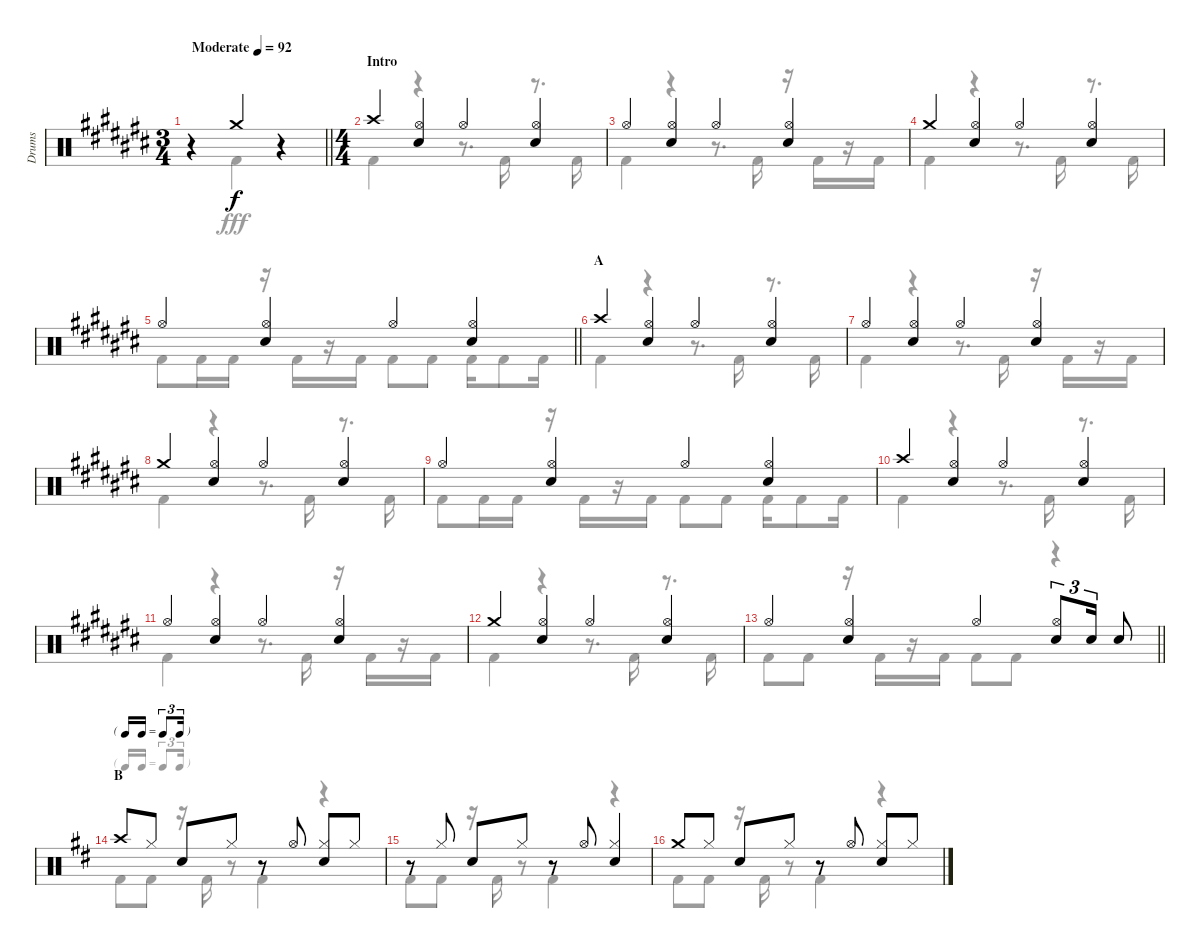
\track ("Drums" "Drums") {instrument percussion}
\staff {score}
\articulation defaults
\voice
\ts (3 4)
\tempo (92 "Moderate")
\clef neutral
\barLineRight lightlight
\ks c#
r.4{dy f} "Crash medium (hit)".4 r.4 |
\ts (4 4)
\section ("" "Intro")
"Crash high (hit)".4 ("Hi-Hat (open)" "Snare (hit) 2").4 "Hi-Hat (open)".4 ("Hi-Hat (open)" "Snare (hit) 2").4 |
"Hi-Hat (open)".4 ("Hi-Hat (open)" "Snare (hit) 2").4 "Hi-Hat (open)".4 ("Hi-Hat (open)" "Snare (hit) 2").4 |
"Crash medium (hit)".4 ("Hi-Hat (open)" "Snare (hit) 2").4 "Hi-Hat (open)".4 ("Hi-Hat (open)" "Snare (hit) 2").4 |
\barLineRight lightlight "Hi-Hat (open)".4
("Hi-Hat (open)" "Snare (hit) 2").4 "Hi-Hat (open)".4 ("Hi-Hat (open)" "Snare (hit) 2").4 |
\section ("" "A")
"Crash high (hit)".4 ("Hi-Hat (open)" "Snare (hit) 2").4 "Hi-Hat (open)".4 ("Hi-Hat (open)" "Snare (hit) 2").4 |
"Hi-Hat (open)".4 ("Hi-Hat (open)" "Snare (hit) 2").4 "Hi-Hat (open)".4 ("Hi-Hat (open)" "Snare (hit) 2").4 |
"Crash medium (hit)".4 ("Hi-Hat (open)" "Snare (hit) 2").4 "Hi-Hat (open)".4 ("Hi-Hat (open)" "Snare (hit) 2").4 |
"Hi-Hat (open)".4 ("Hi-Hat (open)" "Snare (hit) 2").4 "Hi-Hat (open)".4 ("Hi-Hat (open)" "Snare (hit) 2").4 |
"Crash high (hit)".4 ("Hi-Hat (open)" "Snare (hit) 2").4 "Hi-Hat (open)".4 ("Hi-Hat (open)" "Snare (hit) 2").4 |
"Hi-Hat (open)".4 ("Hi-Hat (open)" "Snare (hit) 2").4 "Hi-Hat (open)".4 ("Hi-Hat (open)" "Snare (hit) 2").4 |
"Crash medium (hit)".4 ("Hi-Hat (open)" "Snare (hit) 2").4 "Hi-Hat (open)".4 ("Hi-Hat (open)" "Snare (hit) 2").4 |
\barLineRight lightlight "Hi-Hat (open)".4
("Hi-Hat (open)" "Snare (hit) 2").4 "Hi-Hat (open)".4 ("Hi-Hat (open)" "Snare (hit) 2").8{tu (3 2)} "Snare (hit) 2".16{tu (3 2)} "Snare (hit) 2".8 |
\tf triplet16th
\section ("" "B")
\ks d "Crash high (hit)".8 "Hi-Hat (closed)".8 "Snare (hit) 2".8 "Hi-Hat (closed)".8
r.8 "Hi-Hat (open)".8 ("Hi-Hat (closed)" "Snare (hit) 2").8 "Hi-Hat (closed)".8 |
r.8 "Hi-Hat (closed)".8 "Snare (hit) 2".8 "Hi-Hat (closed)".8 r.8 "Hi-Hat (open)".8 ("Hi-Hat (closed)" "Snare (hit) 2").4 |
"Crash medium (hit)".8 "Hi-Hat (closed)".8 "Snare (hit) 2".8 "Hi-Hat (closed)".8 r.8 "Hi-Hat (open)".8 ("Hi-Hat (closed)" "Snare (hit) 2").8 "Hi-Hat (closed)".8
\voice
\clef neutral
\ottava regular
\simile none
\barLineRight lightlight
\ks c#
r.4{dy fff} "Kick (hit) 2".4 r.4 |
"Kick (hit) 2".4 r.4 r.8{d} "Kick (hit) 2".16 r.8{d} "Kick (hit) 2".16 |
"Kick (hit) 2".4 r.4 r.8{d} "Kick (hit) 2".16 r.16 "Kick (hit) 2".16 r.16 "Kick (hit) 2".16 |
"Kick (hit) 2".4 r.4 r.8{d} "Kick (hit) 2".16 r.8{d} "Kick (hit) 2".16 |
\barLineRight lightlight "Kick (hit) 2".8 "Kick (hit) 2".16 "Kick (hit) 2".16
r.16 "Kick (hit) 2".16 r.16 "Kick (hit) 2".16 "Kick (hit) 2".8 "Kick (hit) 2".8 "Kick (hit) 2".16 "Kick (hit) 2".8 "Kick (hit) 2".16 |
"Kick (hit) 2".4 r.4 r.8{d} "Kick (hit) 2".16 r.8{d} "Kick (hit) 2".16 |
"Kick (hit) 2".4 r.4 r.8{d} "Kick (hit) 2".16 r.16 "Kick (hit) 2".16 r.16 "Kick (hit) 2".16 |
"Kick (hit) 2".4 r.4 r.8{d} "Kick (hit) 2".16 r.8{d} "Kick (hit) 2".16 |
"Kick (hit) 2".8 "Kick (hit) 2".16 "Kick (hit) 2".16 r.16 "Kick (hit) 2".16 r.16 "Kick (hit) 2".16 "Kick (hit) 2".8 "Kick (hit) 2".8 "Kick (hit) 2".16 "Kick (hit) 2".8 "Kick (hit) 2".16 |
"Kick (hit) 2".4 r.4 r.8{d} "Kick (hit) 2".16 r.8{d} "Kick (hit) 2".16 |
"Kick (hit) 2".4 r.4 r.8{d} "Kick (hit) 2".16 r.16 "Kick (hit) 2".16 r.16 "Kick (hit) 2".16 |
"Kick (hit) 2".4 r.4 r.8{d} "Kick (hit) 2".16 r.8{d} "Kick (hit) 2".16 |
\barLineRight lightlight "Kick (hit) 2".8 "Kick (hit) 2".8
r.16 "Kick (hit) 2".16 r.16 "Kick (hit) 2".16 "Kick (hit) 2".8 "Kick (hit) 2".8 r.4 |
\ks d "Kick (hit) 2".8 "Kick (hit) 2".8
r.16 "Kick (hit) 2".16 r.8 "Kick (hit) 2".4 r.4 |
"Kick (hit) 2".8 "Kick (hit) 2".8 r.16 "Kick (hit) 2".16 r.8 "Kick (hit) 2".4 r.4 |
"Kick (hit) 2".8 "Kick (hit) 2".8 r.16 "Kick (hit) 2".16 r.8 "Kick (hit) 2".4 r.4
